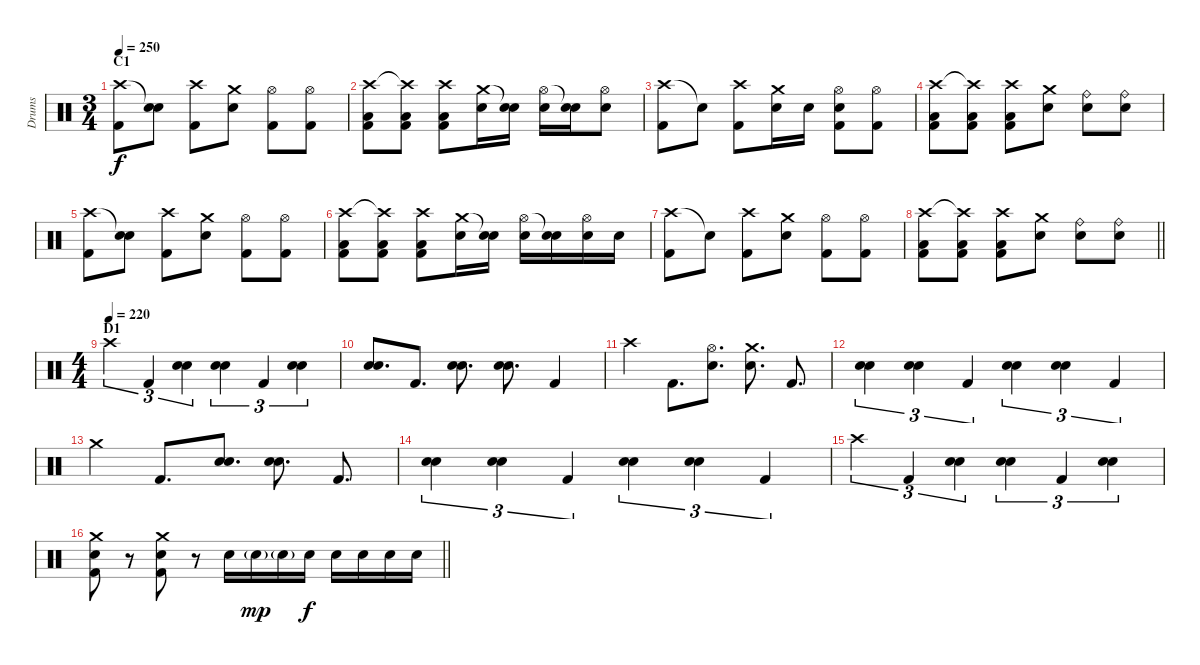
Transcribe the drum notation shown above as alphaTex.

\track ("Drums" "Drums") {instrument percussion}
\staff {score}
\articulation defaults
\ts (3 4)
\section ("" "C1")
\tempo 250
\clef neutral
\ks c
("Crash high (hit)" "Kick (hit) 2").8{dy f} ("Snare (hit)"{t} "Electric Snare (hit)").8 ("Crash high (hit)" "Kick (hit) 2").8 ("Crash medium (hit)" "Electric Snare (hit)").8 ("Hi-Hat (open)" "Kick (hit) 2").8 ("Hi-Hat (open)" "Kick (hit) 2").8 |
("Crash high (hit)" "Low Tom (hit)" "Kick (hit) 2").8 ("Crash high (hit)"{t} "Low Tom (hit)" "Kick (hit) 2").8 ("Crash high (hit)" "Low Tom (hit)" "Kick (hit) 2").8 ("Crash medium (hit)" "Electric Snare (hit)").16 ("Snare (hit)"{t} "Electric Snare (hit)").16 ("Hi-Hat (open)" "Electric Snare (hit)").16 ("Snare (hit)"{t} "Electric Snare (hit)").16 ("Hi-Hat (open)" "Electric Snare (hit)").8 |
("Crash high (hit)" "Kick (hit) 2").8 "Snare (hit)"{t}.8 ("Crash high (hit)" "Kick (hit) 2").8 ("Crash medium (hit)" "Electric Snare (hit)").16 "Electric Snare (hit)".16 ("Hi-Hat (open)" "Electric Snare (hit)" "Kick (hit) 2").8 ("Hi-Hat (open)" "Kick (hit) 2").8 |
("Crash high (hit)" "Low Tom (hit)" "Kick (hit) 2").8 ("Crash high (hit)"{t} "Low Tom (hit)" "Kick (hit) 2").8 ("Crash high (hit)" "Low Tom (hit)" "Kick (hit) 2").8 ("Crash medium (hit)" "Electric Snare (hit)").8 ("Ride (bell)" "Electric Snare (hit)").8 ("Ride (bell)" "Electric Snare (hit)").8 |
("Crash high (hit)" "Kick (hit) 2").8 ("Snare (hit)"{t} "Electric Snare (hit)").8 ("Crash high (hit)" "Kick (hit) 2").8 ("Crash medium (hit)" "Electric Snare (hit)").8 ("Hi-Hat (open)" "Kick (hit) 2").8 ("Hi-Hat (open)" "Kick (hit) 2").8 |
("Crash high (hit)" "Low Tom (hit)" "Kick (hit) 2").8 ("Crash high (hit)"{t} "Low Tom (hit)" "Kick (hit) 2").8 ("Crash high (hit)" "Low Tom (hit)" "Kick (hit) 2").8 ("Crash medium (hit)" "Electric Snare (hit)").16 ("Snare (hit)"{t} "Electric Snare (hit)").16 ("Hi-Hat (open)" "Electric Snare (hit)").16 ("Snare (hit)"{t} "Electric Snare (hit)").16 ("Hi-Hat (open)" "Electric Snare (hit)").16 "Electric Snare (hit)".16 |
("Crash high (hit)" "Kick (hit) 2").8 "Snare (hit)"{t}.8 ("Crash high (hit)" "Kick (hit) 2").8 ("Crash medium (hit)" "Electric Snare (hit)").8 ("Hi-Hat (open)" "Kick (hit) 2").8 ("Hi-Hat (open)" "Kick (hit) 2").8 |
\barLineRight lightlight
("Crash high (hit)" "Low Tom (hit)" "Kick (hit) 2").8 ("Crash high (hit)"{t} "Low Tom (hit)" "Kick (hit) 2").8 ("Crash high (hit)" "Low Tom (hit)" "Kick (hit) 2").8 ("Crash medium (hit)" "Electric Snare (hit)").8 ("Ride (bell)" "Electric Snare (hit)").8 ("Ride (bell)" "Electric Snare (hit)").8 |
\ts (4 4)
\section ("" "D1")
\tempo (220)
"Crash high (hit)".4{tu (3 2)} "Kick (hit) 2".4{tu (3 2)} ("Electric Snare (hit)" "Electric Snare (hit)").4{tu (3 2) bd 240} ("Electric Snare (hit)" "Electric Snare (hit)").4{tu (3 2) bd 240} "Kick (hit) 2".4{tu (3 2)} ("Electric Snare (hit)" "Electric Snare (hit)").4{tu (3 2) bd 240} |
("Electric Snare (hit)" "Electric Snare (hit)").8{d bd 240} "Kick (hit) 2".8{d} ("Electric Snare (hit)" "Electric Snare (hit)").8{d bd 240} ("Electric Snare (hit)" "Electric Snare (hit)").8{d bd 240} "Kick (hit) 2".4 |
"Crash high (hit)".4 "Kick (hit) 2".8{d} ("Hi-Hat (open)" "Electric Snare (hit)").8{d} ("Crash medium (hit)" "Electric Snare (hit)").8{d} "Kick (hit) 2".8{d} |
("Electric Snare (hit)" "Electric Snare (hit)").4{tu (3 2) bd 240} ("Electric Snare (hit)" "Electric Snare (hit)").4{tu (3 2) bd 240} "Kick (hit) 2".4{tu (3 2)} ("Electric Snare (hit)" "Electric Snare (hit)").4{tu (3 2) bd 240} ("Electric Snare (hit)" "Electric Snare (hit)").4{tu (3 2) bd 240} "Kick (hit) 2".4{tu (3 2)} |
"Crash medium (hit)".4 "Kick (hit) 2".8{d} ("Electric Snare (hit)" "Electric Snare (hit)").8{d bd 120} ("Electric Snare (hit)" "Electric Snare (hit)").8{d bd 240} "Kick (hit) 2".8{d} |
("Electric Snare (hit)" "Electric Snare (hit)").4{tu (3 2) bd 240} ("Electric Snare (hit)" "Electric Snare (hit)").4{tu (3 2) bd 240} "Kick (hit) 2".4{tu (3 2)} ("Electric Snare (hit)" "Electric Snare (hit)").4{tu (3 2) bd 240} ("Electric Snare (hit)" "Electric Snare (hit)").4{tu (3 2) bd 240} "Kick (hit) 2".4{tu (3 2)} |
"Crash high (hit)".4{tu (3 2)} "Kick (hit) 2".4{tu (3 2)} ("Electric Snare (hit)" "Electric Snare (hit)").4{tu (3 2) bd 240} ("Electric Snare (hit)" "Electric Snare (hit)").4{tu (3 2) bd 240} "Kick (hit) 2".4{tu (3 2)} ("Electric Snare (hit)" "Electric Snare (hit)").4{tu (3 2) bd 240} |
\barLineRight lightlight
("Crash medium (hit)" "Electric Snare (hit)" "Kick (hit) 2").8 r.8 ("Crash medium (hit)" "Electric Snare (hit)" "Kick (hit) 2").8 r.8 "Electric Snare (hit)".16 "Electric Snare (hit)"{g}.16{dy mp} "Electric Snare (hit)"{g}.16 "Electric Snare (hit)".16{dy f} "Electric Snare (hit)".16 "Electric Snare (hit)".16 "Electric Snare (hit)".16 "Electric Snare (hit)".16
